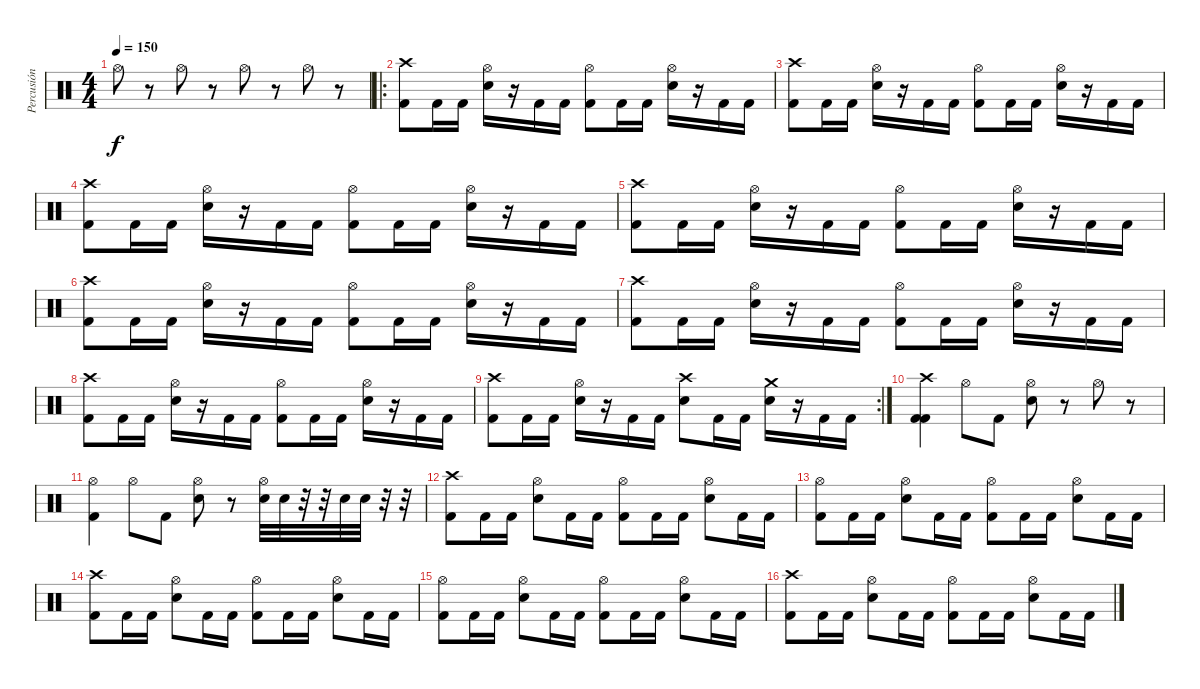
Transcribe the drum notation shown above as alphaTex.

\track ("Percusión" "Percusión") {instrument percussion}
\staff {score}
\articulation defaults
\ts (4 4)
\tempo 150
\clef neutral
\ks c "Hi-Hat (open)".8{dy f}
r.8 "Hi-Hat (open)".8 r.8 "Hi-Hat (open)".8 r.8 "Hi-Hat (open)".8 r.8 |
\ro
("Crash high (hit)" "Kick (hit) 2").8 "Kick (hit) 2".16 "Kick (hit) 2".16 ("Hi-Hat (open)" "Electric Snare (hit)").16 r.16 "Kick (hit) 2".16 "Kick (hit) 2".16 ("Hi-Hat (open)" "Kick (hit) 2").8 "Kick (hit) 2".16 "Kick (hit) 2".16 ("Hi-Hat (open)" "Electric Snare (hit)").16 r.16 "Kick (hit) 2".16 "Kick (hit) 2".16 |
("Crash high (hit)" "Kick (hit) 2").8 "Kick (hit) 2".16 "Kick (hit) 2".16 ("Hi-Hat (open)" "Electric Snare (hit)").16 r.16 "Kick (hit) 2".16 "Kick (hit) 2".16 ("Hi-Hat (open)" "Kick (hit) 2").8 "Kick (hit) 2".16 "Kick (hit) 2".16 ("Hi-Hat (open)" "Electric Snare (hit)").16 r.16 "Kick (hit) 2".16 "Kick (hit) 2".16 |
("Crash high (hit)" "Kick (hit) 2").8 "Kick (hit) 2".16 "Kick (hit) 2".16 ("Hi-Hat (open)" "Electric Snare (hit)").16 r.16 "Kick (hit) 2".16 "Kick (hit) 2".16 ("Hi-Hat (open)" "Kick (hit) 2").8 "Kick (hit) 2".16 "Kick (hit) 2".16 ("Hi-Hat (open)" "Electric Snare (hit)").16 r.16 "Kick (hit) 2".16 "Kick (hit) 2".16 |
("Crash high (hit)" "Kick (hit) 2").8 "Kick (hit) 2".16 "Kick (hit) 2".16 ("Hi-Hat (open)" "Electric Snare (hit)").16 r.16 "Kick (hit) 2".16 "Kick (hit) 2".16 ("Hi-Hat (open)" "Kick (hit) 2").8 "Kick (hit) 2".16 "Kick (hit) 2".16 ("Hi-Hat (open)" "Electric Snare (hit)").16 r.16 "Kick (hit) 2".16 "Kick (hit) 2".16 |
("Crash high (hit)" "Kick (hit) 2").8 "Kick (hit) 2".16 "Kick (hit) 2".16 ("Hi-Hat (open)" "Electric Snare (hit)").16 r.16 "Kick (hit) 2".16 "Kick (hit) 2".16 ("Hi-Hat (open)" "Kick (hit) 2").8 "Kick (hit) 2".16 "Kick (hit) 2".16 ("Hi-Hat (open)" "Electric Snare (hit)").16 r.16 "Kick (hit) 2".16 "Kick (hit) 2".16 |
("Crash high (hit)" "Kick (hit) 2").8 "Kick (hit) 2".16 "Kick (hit) 2".16 ("Hi-Hat (open)" "Electric Snare (hit)").16 r.16 "Kick (hit) 2".16 "Kick (hit) 2".16 ("Hi-Hat (open)" "Kick (hit) 2").8 "Kick (hit) 2".16 "Kick (hit) 2".16 ("Hi-Hat (open)" "Electric Snare (hit)").16 r.16 "Kick (hit) 2".16 "Kick (hit) 2".16 |
("Crash high (hit)" "Kick (hit) 2").8 "Kick (hit) 2".16 "Kick (hit) 2".16 ("Hi-Hat (open)" "Electric Snare (hit)").16 r.16 "Kick (hit) 2".16 "Kick (hit) 2".16 ("Hi-Hat (open)" "Kick (hit) 2").8 "Kick (hit) 2".16 "Kick (hit) 2".16 ("Hi-Hat (open)" "Electric Snare (hit)").16 r.16 "Kick (hit) 2".16 "Kick (hit) 2".16 |
\rc 2
("Crash high (hit)" "Kick (hit) 2").8 "Kick (hit) 2".16 "Kick (hit) 2".16 ("Hi-Hat (open)" "Electric Snare (hit)").16 r.16 "Kick (hit) 2".16 "Kick (hit) 2".16 ("Crash high (hit)" "Electric Snare (hit)").8 "Kick (hit) 2".16 "Kick (hit) 2".16 ("Crash medium (hit)" "Electric Snare (hit)").16 r.16 "Kick (hit) 2".16 "Kick (hit) 2".16 |
("Crash high (hit)" "Kick (hit) 2" "Kick (hit) 2").4 "Hi-Hat (open)".8 "Kick (hit) 2".8 ("Hi-Hat (open)" "Electric Snare (hit)").8 r.8 "Hi-Hat (open)".8 r.8 |
("Hi-Hat (open)" "Kick (hit) 2").4 "Hi-Hat (open)".8 "Kick (hit) 2".8 ("Hi-Hat (open)" "Electric Snare (hit)").8 r.8 ("Hi-Hat (open)" "Electric Snare (hit)").32 "Electric Snare (hit)".32 r.32 r.32 "Electric Snare (hit)".32 "Electric Snare (hit)".32 r.32 r.32 |
("Crash high (hit)" "Kick (hit) 2").8 "Kick (hit) 2".16 "Kick (hit) 2".16 ("Hi-Hat (open)" "Electric Snare (hit)").8 "Kick (hit) 2".16 "Kick (hit) 2".16 ("Hi-Hat (open)" "Kick (hit) 2").8 "Kick (hit) 2".16 "Kick (hit) 2".16 ("Hi-Hat (open)" "Electric Snare (hit)").8 "Kick (hit) 2".16 "Kick (hit) 2".16 |
("Hi-Hat (open)" "Kick (hit) 2").8 "Kick (hit) 2".16 "Kick (hit) 2".16 ("Hi-Hat (open)" "Electric Snare (hit)").8 "Kick (hit) 2".16 "Kick (hit) 2".16 ("Hi-Hat (open)" "Kick (hit) 2").8 "Kick (hit) 2".16 "Kick (hit) 2".16 ("Hi-Hat (open)" "Electric Snare (hit)").8 "Kick (hit) 2".16 "Kick (hit) 2".16 |
("Crash high (hit)" "Kick (hit) 2").8 "Kick (hit) 2".16 "Kick (hit) 2".16 ("Hi-Hat (open)" "Electric Snare (hit)").8 "Kick (hit) 2".16 "Kick (hit) 2".16 ("Hi-Hat (open)" "Kick (hit) 2").8 "Kick (hit) 2".16 "Kick (hit) 2".16 ("Hi-Hat (open)" "Electric Snare (hit)").8 "Kick (hit) 2".16 "Kick (hit) 2".16 |
("Hi-Hat (open)" "Kick (hit) 2").8 "Kick (hit) 2".16 "Kick (hit) 2".16 ("Hi-Hat (open)" "Electric Snare (hit)").8 "Kick (hit) 2".16 "Kick (hit) 2".16 ("Hi-Hat (open)" "Kick (hit) 2").8 "Kick (hit) 2".16 "Kick (hit) 2".16 ("Hi-Hat (open)" "Electric Snare (hit)").8 "Kick (hit) 2".16 "Kick (hit) 2".16 |
("Crash high (hit)" "Kick (hit) 2").8 "Kick (hit) 2".16 "Kick (hit) 2".16 ("Hi-Hat (open)" "Electric Snare (hit)").8 "Kick (hit) 2".16 "Kick (hit) 2".16 ("Hi-Hat (open)" "Kick (hit) 2").8 "Kick (hit) 2".16 "Kick (hit) 2".16 ("Hi-Hat (open)" "Electric Snare (hit)").8 "Kick (hit) 2".16 "Kick (hit) 2".16
